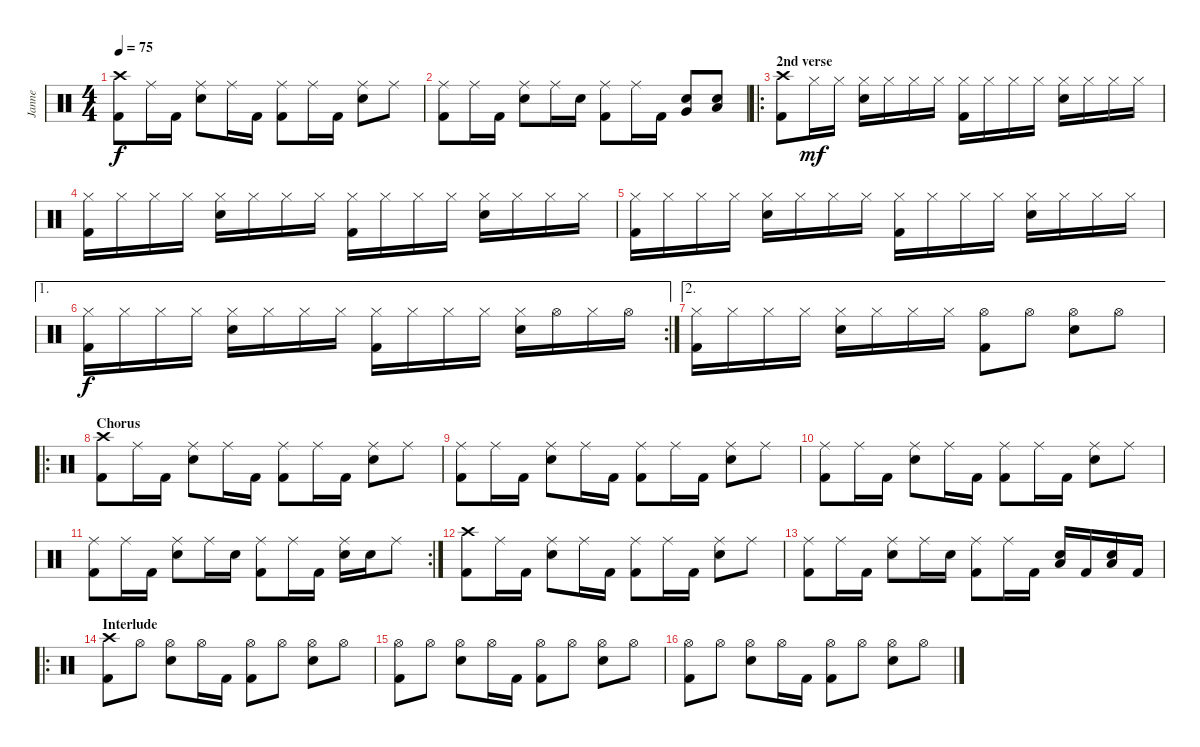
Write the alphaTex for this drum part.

\track ("Janne" "Janne") {instrument percussion}
\staff {score}
\articulation defaults
\ts (4 4)
\tempo 75
\clef neutral
\ks c
("Crash high (hit)" "Kick (hit) 2").8{dy f} "Ride (middle)".16 "Kick (hit) 2".16 ("Ride (middle)" "Electric Snare (hit)").8 "Ride (middle)".16 "Kick (hit) 2".16 ("Ride (middle)" "Kick (hit) 2").8 "Ride (middle)".16 "Kick (hit) 2".16 ("Ride (middle)" "Electric Snare (hit)").8 "Ride (middle)".8 |
("Ride (middle)" "Kick (hit) 2").8 "Ride (middle)".16 "Kick (hit) 2".16 ("Ride (middle)" "Electric Snare (hit)").8 "Ride (middle)".16 "Electric Snare (hit)".16 ("Ride (middle)" "Kick (hit) 2").8 "Ride (middle)".16 "Kick (hit) 2".16 ("Very Low Tom (hit)" "Electric Snare (hit)").8 ("Low Floor Tom (hit)" "Electric Snare (hit)").8 |
\ro
\section ("" "2nd verse")
("Crash high (hit)" "Kick (hit) 2").8 "Hi-Hat (closed)".16{dy mf} "Hi-Hat (closed)".16 ("Hi-Hat (closed)" "Electric Snare (hit)").16 "Hi-Hat (closed)".16 "Hi-Hat (closed)".16 "Hi-Hat (closed)".16 ("Hi-Hat (closed)" "Kick (hit) 2").16 "Hi-Hat (closed)".16 "Hi-Hat (closed)".16 "Hi-Hat (closed)".16 ("Hi-Hat (closed)" "Electric Snare (hit)").16 "Hi-Hat (closed)".16 "Hi-Hat (closed)".16 "Hi-Hat (closed)".16 |
("Hi-Hat (closed)" "Kick (hit) 2").16 "Hi-Hat (closed)".16 "Hi-Hat (closed)".16 "Hi-Hat (closed)".16 ("Hi-Hat (closed)" "Electric Snare (hit)").16 "Hi-Hat (closed)".16 "Hi-Hat (closed)".16 "Hi-Hat (closed)".16 ("Hi-Hat (closed)" "Kick (hit) 2").16 "Hi-Hat (closed)".16 "Hi-Hat (closed)".16 "Hi-Hat (closed)".16 ("Hi-Hat (closed)" "Electric Snare (hit)").16 "Hi-Hat (closed)".16 "Hi-Hat (closed)".16 "Hi-Hat (closed)".16 |
("Hi-Hat (closed)" "Kick (hit) 2").16 "Hi-Hat (closed)".16 "Hi-Hat (closed)".16 "Hi-Hat (closed)".16 ("Hi-Hat (closed)" "Electric Snare (hit)").16 "Hi-Hat (closed)".16 "Hi-Hat (closed)".16 "Hi-Hat (closed)".16 ("Hi-Hat (closed)" "Kick (hit) 2").16 "Hi-Hat (closed)".16 "Hi-Hat (closed)".16 "Hi-Hat (closed)".16 ("Hi-Hat (closed)" "Electric Snare (hit)").16 "Hi-Hat (closed)".16 "Hi-Hat (closed)".16 "Hi-Hat (closed)".16 |
\ae 1
\rc 2
("Hi-Hat (closed)" "Kick (hit) 2").16{dy f} "Hi-Hat (closed)".16 "Hi-Hat (closed)".16 "Hi-Hat (closed)".16 ("Hi-Hat (closed)" "Electric Snare (hit)").16 "Hi-Hat (closed)".16 "Hi-Hat (closed)".16 "Hi-Hat (closed)".16 ("Hi-Hat (closed)" "Kick (hit) 2").16 "Hi-Hat (closed)".16 "Hi-Hat (closed)".16 "Hi-Hat (closed)".16 ("Hi-Hat (closed)" "Electric Snare (hit)").16 "Hi-Hat (open)".16 "Hi-Hat (closed)".16 "Hi-Hat (open)".16 |
\ae 2
("Hi-Hat (closed)" "Kick (hit) 2").16 "Hi-Hat (closed)".16 "Hi-Hat (closed)".16 "Hi-Hat (closed)".16 ("Hi-Hat (closed)" "Electric Snare (hit)").16 "Hi-Hat (closed)".16 "Hi-Hat (closed)".16 "Hi-Hat (closed)".16 ("Hi-Hat (open)" "Kick (hit) 2").8 "Hi-Hat (open)".8 ("Hi-Hat (open)" "Electric Snare (hit)").8 "Hi-Hat (open)".8 |
\ro
\section ("" "Chorus")
("Crash high (hit)" "Kick (hit) 2").8 "Ride (middle)".16 "Kick (hit) 2".16 ("Ride (middle)" "Electric Snare (hit)").8 "Ride (middle)".16 "Kick (hit) 2".16 ("Ride (middle)" "Kick (hit) 2").8 "Ride (middle)".16 "Kick (hit) 2".16 ("Ride (middle)" "Electric Snare (hit)").8 "Ride (middle)".8 |
("Ride (middle)" "Kick (hit) 2").8 "Ride (middle)".16 "Kick (hit) 2".16 ("Ride (middle)" "Electric Snare (hit)").8 "Ride (middle)".16 "Kick (hit) 2".16 ("Ride (middle)" "Kick (hit) 2").8 "Ride (middle)".16 "Kick (hit) 2".16 ("Ride (middle)" "Electric Snare (hit)").8 "Ride (middle)".8 |
("Ride (middle)" "Kick (hit) 2").8 "Ride (middle)".16 "Kick (hit) 2".16 ("Ride (middle)" "Electric Snare (hit)").8 "Ride (middle)".16 "Kick (hit) 2".16 ("Ride (middle)" "Kick (hit) 2").8 "Ride (middle)".16 "Kick (hit) 2".16 ("Ride (middle)" "Electric Snare (hit)").8 "Ride (middle)".8 |
\rc 2
("Ride (middle)" "Kick (hit) 2").8 "Ride (middle)".16 "Kick (hit) 2".16 ("Ride (middle)" "Electric Snare (hit)").8 "Ride (middle)".16 "Electric Snare (hit)".16 ("Ride (middle)" "Kick (hit) 2").8 "Ride (middle)".16 "Kick (hit) 2".16 ("Ride (middle)" "Electric Snare (hit)").16 "Electric Snare (hit)".16 "Ride (middle)".8 |
("Crash high (hit)" "Kick (hit) 2").8 "Ride (middle)".16 "Kick (hit) 2".16 ("Ride (middle)" "Electric Snare (hit)").8 "Ride (middle)".16 "Kick (hit) 2".16 ("Ride (middle)" "Kick (hit) 2").8 "Ride (middle)".16 "Kick (hit) 2".16 ("Ride (middle)" "Electric Snare (hit)").8 "Ride (middle)".8 |
("Ride (middle)" "Kick (hit) 2").8 "Ride (middle)".16 "Kick (hit) 2".16 ("Ride (middle)" "Electric Snare (hit)").8 "Ride (middle)".16 "Electric Snare (hit)".16 ("Ride (middle)" "Kick (hit) 2").8 "Ride (middle)".16 "Kick (hit) 2".16 ("Low Floor Tom (hit)" "Electric Snare (hit)").16 "Kick (hit) 2".16 ("Low Floor Tom (hit)" "Electric Snare (hit)").16 "Kick (hit) 2".16 |
\ro
\section ("" "Interlude")
("Crash high (hit)" "Kick (hit) 2").8 "Hi-Hat (open)".8 ("Hi-Hat (open)" "Electric Snare (hit)").8 "Hi-Hat (open)".16 "Kick (hit) 2".16 ("Hi-Hat (open)" "Kick (hit) 2").8 "Hi-Hat (open)".8 ("Hi-Hat (open)" "Electric Snare (hit)").8 "Hi-Hat (open)".8 |
("Hi-Hat (open)" "Kick (hit) 2").8 "Hi-Hat (open)".8 ("Hi-Hat (open)" "Electric Snare (hit)").8 "Hi-Hat (open)".16 "Kick (hit) 2".16 ("Hi-Hat (open)" "Kick (hit) 2").8 "Hi-Hat (open)".8 ("Hi-Hat (open)" "Electric Snare (hit)").8 "Hi-Hat (open)".8 |
("Hi-Hat (open)" "Kick (hit) 2").8 "Hi-Hat (open)".8 ("Hi-Hat (open)" "Electric Snare (hit)").8 "Hi-Hat (open)".16 "Kick (hit) 2".16 ("Hi-Hat (open)" "Kick (hit) 2").8 "Hi-Hat (open)".8 ("Hi-Hat (open)" "Electric Snare (hit)").8 "Hi-Hat (open)".8
